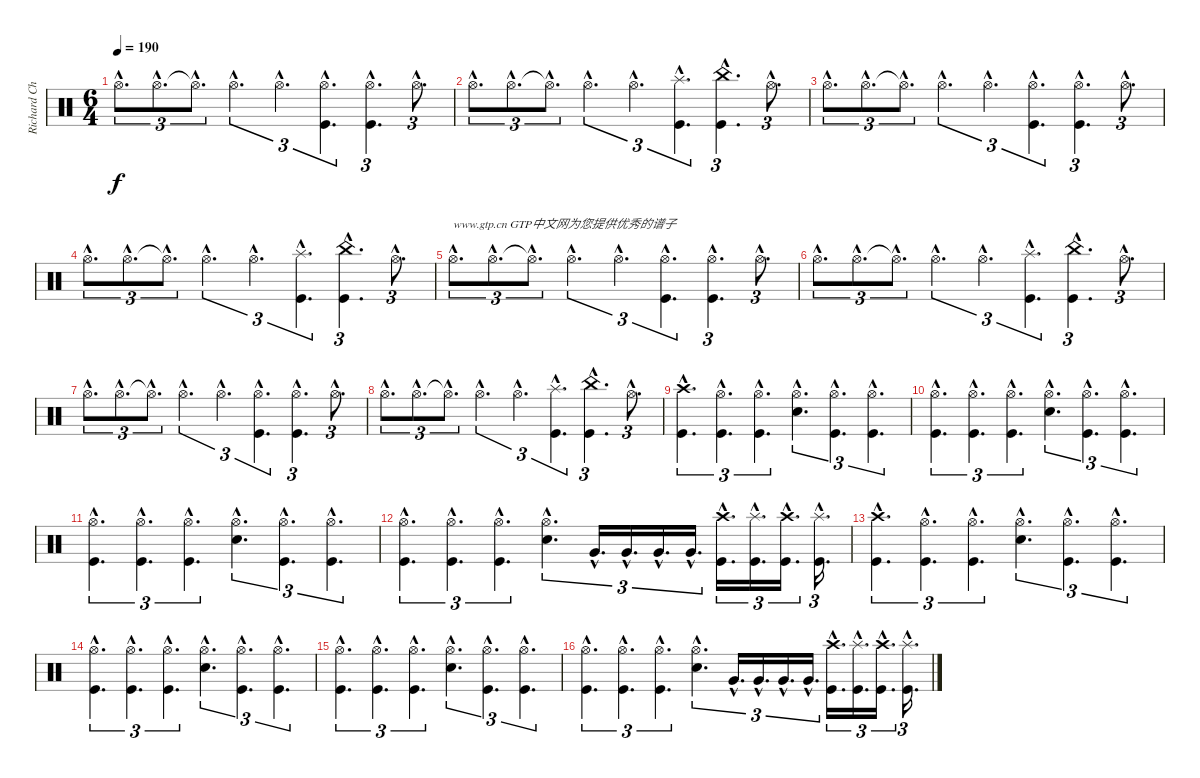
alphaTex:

\track ("Richard Christy" "Richard Ch") {instrument percussion}
\staff {score}
\articulation defaults
\ts (6 4)
\tempo 190
\clef neutral
\ks c "Hi-Hat (open)"{hac}.8{d tu (3 2) dy f} "Hi-Hat (open)"{hac}.8{d tu (3 2)} "Hi-Hat (open)"{hac t}.8{d tu (3 2)} "Hi-Hat (open)"{hac}.4{d tu (3 2)} "Hi-Hat (open)"{hac}.4{d tu (3 2)}
("Hi-Hat (open)"{hac} "Kick (hit)"{hac}).4{d tu (3 2)} ("Hi-Hat (open)"{hac} "Kick (hit)"{hac}).4{d tu (3 2)} "Hi-Hat (open)"{hac}.8{d tu (3 2)} |
"Hi-Hat (open)"{hac}.8{d tu (3 2)} "Hi-Hat (open)"{hac}.8{d tu (3 2)} "Hi-Hat (open)"{hac t}.8{d tu (3 2)} "Hi-Hat (open)"{hac}.4{d tu (3 2)} "Hi-Hat (open)"{hac}.4{d tu (3 2)} ("Splash (hit)"{hac} "Kick (hit)"{hac}).4{d tu (3 2)} ("China (hit)"{hac} "Kick (hit)"{hac}).4{d tu (3 2)} "Hi-Hat (open)"{hac}.8{d tu (3 2)} |
"Hi-Hat (open)"{hac}.8{d tu (3 2)} "Hi-Hat (open)"{hac}.8{d tu (3 2)} "Hi-Hat (open)"{hac t}.8{d tu (3 2)} "Hi-Hat (open)"{hac}.4{d tu (3 2)} "Hi-Hat (open)"{hac}.4{d tu (3 2)} ("Hi-Hat (open)"{hac} "Kick (hit)"{hac}).4{d tu (3 2)} ("Hi-Hat (open)"{hac} "Kick (hit)"{hac}).4{d tu (3 2)} "Hi-Hat (open)"{hac}.8{d tu (3 2)} |
"Hi-Hat (open)"{hac}.8{d tu (3 2)} "Hi-Hat (open)"{hac}.8{d tu (3 2)} "Hi-Hat (open)"{hac t}.8{d tu (3 2)} "Hi-Hat (open)"{hac}.4{d tu (3 2)} "Hi-Hat (open)"{hac}.4{d tu (3 2)} ("Splash (hit)"{hac} "Kick (hit)"{hac}).4{d tu (3 2)} ("China (hit)"{hac} "Kick (hit)"{hac}).4{d tu (3 2)} "Hi-Hat (open)"{hac}.8{d tu (3 2)} |
"Hi-Hat (open)"{hac}.8{d tu (3 2) txt "www.gtp.cn GTP中文网为您提供优秀的谱子"} "Hi-Hat (open)"{hac}.8{d tu (3 2)} "Hi-Hat (open)"{hac t}.8{d tu (3 2)} "Hi-Hat (open)"{hac}.4{d tu (3 2)} "Hi-Hat (open)"{hac}.4{d tu (3 2)} ("Hi-Hat (open)"{hac} "Kick (hit)"{hac}).4{d tu (3 2)} ("Hi-Hat (open)"{hac} "Kick (hit)"{hac}).4{d tu (3 2)} "Hi-Hat (open)"{hac}.8{d tu (3 2)} |
"Hi-Hat (open)"{hac}.8{d tu (3 2)} "Hi-Hat (open)"{hac}.8{d tu (3 2)} "Hi-Hat (open)"{hac t}.8{d tu (3 2)} "Hi-Hat (open)"{hac}.4{d tu (3 2)} "Hi-Hat (open)"{hac}.4{d tu (3 2)} ("Splash (hit)"{hac} "Kick (hit)"{hac}).4{d tu (3 2)} ("China (hit)"{hac} "Kick (hit)"{hac}).4{d tu (3 2)} "Hi-Hat (open)"{hac}.8{d tu (3 2)} |
"Hi-Hat (open)"{hac}.8{d tu (3 2)} "Hi-Hat (open)"{hac}.8{d tu (3 2)} "Hi-Hat (open)"{hac t}.8{d tu (3 2)} "Hi-Hat (open)"{hac}.4{d tu (3 2)} "Hi-Hat (open)"{hac}.4{d tu (3 2)} ("Hi-Hat (open)"{hac} "Kick (hit)"{hac}).4{d tu (3 2)} ("Hi-Hat (open)"{hac} "Kick (hit)"{hac}).4{d tu (3 2)} "Hi-Hat (open)"{hac}.8{d tu (3 2)} |
"Hi-Hat (open)"{hac}.8{d tu (3 2)} "Hi-Hat (open)"{hac}.8{d tu (3 2)} "Hi-Hat (open)"{hac t}.8{d tu (3 2)} "Hi-Hat (open)"{hac}.4{d tu (3 2)} "Hi-Hat (open)"{hac}.4{d tu (3 2)} ("Splash (hit)"{hac} "Kick (hit)"{hac}).4{d tu (3 2)} ("China (hit)"{hac} "Kick (hit)"{hac}).4{d tu (3 2)} "Hi-Hat (open)"{hac}.8{d tu (3 2)} |
("Crash high (hit)"{hac} "Kick (hit)"{hac}).4{d tu (3 2)} ("Hi-Hat (open)"{hac} "Kick (hit)"{hac}).4{d tu (3 2)} ("Hi-Hat (open)"{hac} "Kick (hit)"{hac}).4{d tu (3 2)} ("Hi-Hat (open)"{hac} "Snare (hit) 2"{hac}).4{d tu (3 2)} ("Hi-Hat (open)"{hac} "Kick (hit)"{hac}).4{d tu (3 2)} ("Hi-Hat (open)"{hac} "Kick (hit)"{hac}).4{d tu (3 2)} |
("Hi-Hat (open)"{hac} "Kick (hit)"{hac}).4{d tu (3 2)} ("Hi-Hat (open)"{hac} "Kick (hit)"{hac}).4{d tu (3 2)} ("Hi-Hat (open)"{hac} "Kick (hit)"{hac}).4{d tu (3 2)} ("Hi-Hat (open)"{hac} "Snare (hit) 2"{hac}).4{d tu (3 2)} ("Hi-Hat (open)"{hac} "Kick (hit)"{hac}).4{d tu (3 2)} ("Hi-Hat (open)"{hac} "Kick (hit)"{hac}).4{d tu (3 2)} |
("Hi-Hat (open)"{hac} "Kick (hit)"{hac}).4{d tu (3 2)} ("Hi-Hat (open)"{hac} "Kick (hit)"{hac}).4{d tu (3 2)} ("Hi-Hat (open)"{hac} "Kick (hit)"{hac}).4{d tu (3 2)} ("Hi-Hat (open)"{hac} "Snare (hit) 2"{hac}).4{d tu (3 2)} ("Hi-Hat (open)"{hac} "Kick (hit)"{hac}).4{d tu (3 2)} ("Hi-Hat (open)"{hac} "Kick (hit)"{hac}).4{d tu (3 2)} |
("Hi-Hat (open)"{hac} "Kick (hit)"{hac}).4{d tu (3 2)} ("Hi-Hat (open)"{hac} "Kick (hit)"{hac}).4{d tu (3 2)} ("Hi-Hat (open)"{hac} "Kick (hit)"{hac}).4{d tu (3 2)} ("Hi-Hat (open)"{hac} "Snare (hit) 2"{hac}).4{d tu (3 2)} "Very Low Tom (hit)"{hac}.16{d tu (3 2)} "Very Low Tom (hit)"{hac}.16{d tu (3 2)} "Very Low Tom (hit)"{hac}.16{d tu (3 2)} "Very Low Tom (hit)"{hac}.16{d tu (3 2)} ("Crash high (hit)"{hac} "Kick (hit)"{hac}).16{d tu (3 2)} ("Splash (hit)"{hac} "Kick (hit)"{hac}).16{d tu (3 2)} ("Crash high (hit)"{hac} "Kick (hit)"{hac}).16{d tu (3 2)} ("Splash (hit)"{hac} "Kick (hit)"{hac}).16{d tu (3 2)} |
("Crash high (hit)"{hac} "Kick (hit)"{hac}).4{d tu (3 2)} ("Hi-Hat (open)"{hac} "Kick (hit)"{hac}).4{d tu (3 2)} ("Hi-Hat (open)"{hac} "Kick (hit)"{hac}).4{d tu (3 2)} ("Hi-Hat (open)"{hac} "Snare (hit) 2"{hac}).4{d tu (3 2)} ("Hi-Hat (open)"{hac} "Kick (hit)"{hac}).4{d tu (3 2)} ("Hi-Hat (open)"{hac} "Kick (hit)"{hac}).4{d tu (3 2)} |
("Hi-Hat (open)"{hac} "Kick (hit)"{hac}).4{d tu (3 2)} ("Hi-Hat (open)"{hac} "Kick (hit)"{hac}).4{d tu (3 2)} ("Hi-Hat (open)"{hac} "Kick (hit)"{hac}).4{d tu (3 2)} ("Hi-Hat (open)"{hac} "Snare (hit) 2"{hac}).4{d tu (3 2)} ("Hi-Hat (open)"{hac} "Kick (hit)"{hac}).4{d tu (3 2)} ("Hi-Hat (open)"{hac} "Kick (hit)"{hac}).4{d tu (3 2)} |
("Hi-Hat (open)"{hac} "Kick (hit)"{hac}).4{d tu (3 2)} ("Hi-Hat (open)"{hac} "Kick (hit)"{hac}).4{d tu (3 2)} ("Hi-Hat (open)"{hac} "Kick (hit)"{hac}).4{d tu (3 2)} ("Hi-Hat (open)"{hac} "Snare (hit) 2"{hac}).4{d tu (3 2)} ("Hi-Hat (open)"{hac} "Kick (hit)"{hac}).4{d tu (3 2)} ("Hi-Hat (open)"{hac} "Kick (hit)"{hac}).4{d tu (3 2)} |
("Hi-Hat (open)"{hac} "Kick (hit)"{hac}).4{d tu (3 2)} ("Hi-Hat (open)"{hac} "Kick (hit)"{hac}).4{d tu (3 2)} ("Hi-Hat (open)"{hac} "Kick (hit)"{hac}).4{d tu (3 2)} ("Hi-Hat (open)"{hac} "Snare (hit) 2"{hac}).4{d tu (3 2)} "Very Low Tom (hit)"{hac}.16{d tu (3 2)} "Very Low Tom (hit)"{hac}.16{d tu (3 2)} "Very Low Tom (hit)"{hac}.16{d tu (3 2)} "Very Low Tom (hit)"{hac}.16{d tu (3 2)} ("Crash high (hit)"{hac} "Kick (hit)"{hac}).16{d tu (3 2)} ("Splash (hit)"{hac} "Kick (hit)"{hac}).16{d tu (3 2)} ("Crash high (hit)"{hac} "Kick (hit)"{hac}).16{d tu (3 2)} ("Splash (hit)"{hac} "Kick (hit)"{hac}).16{d tu (3 2)}
